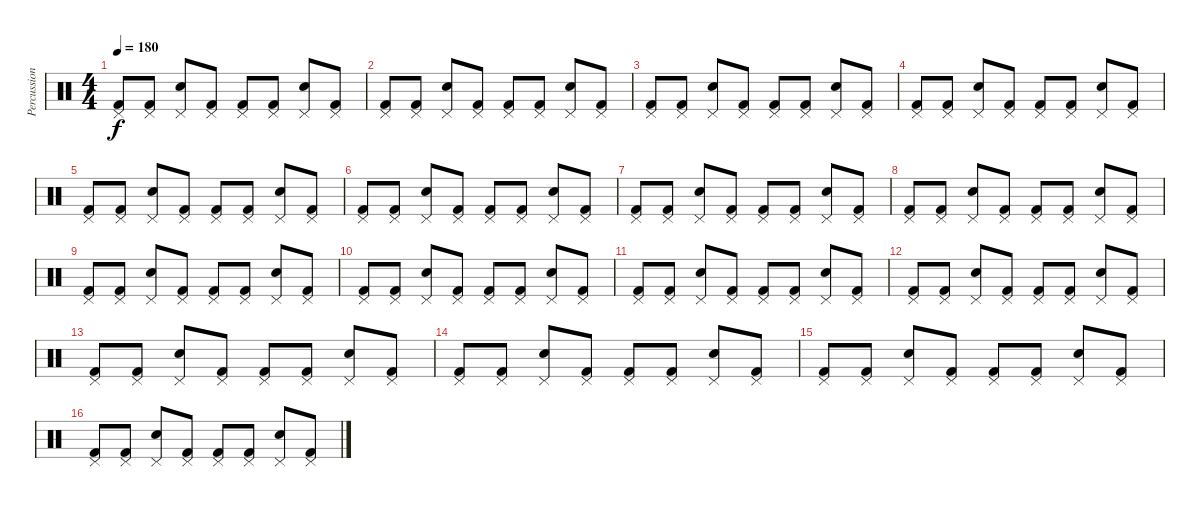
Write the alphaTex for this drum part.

\track ("Percussion" "Percussion") {instrument percussion}
\staff {score}
\articulation defaults
\ts (4 4)
\tempo 180
\clef neutral
\ks c
("Pedal Hi-Hat (hit)" "Kick (hit) 2").8{dy f} ("Pedal Hi-Hat (hit)" "Kick (hit) 2").8 ("Pedal Hi-Hat (hit)" "Snare (hit) 2").8 ("Pedal Hi-Hat (hit)" "Kick (hit) 2").8 ("Pedal Hi-Hat (hit)" "Kick (hit) 2").8 ("Pedal Hi-Hat (hit)" "Kick (hit) 2").8 ("Pedal Hi-Hat (hit)" "Snare (hit) 2").8 ("Pedal Hi-Hat (hit)" "Kick (hit) 2").8 |
("Pedal Hi-Hat (hit)" "Kick (hit) 2").8 ("Pedal Hi-Hat (hit)" "Kick (hit) 2").8 ("Pedal Hi-Hat (hit)" "Snare (hit) 2").8 ("Pedal Hi-Hat (hit)" "Kick (hit) 2").8 ("Pedal Hi-Hat (hit)" "Kick (hit) 2").8 ("Pedal Hi-Hat (hit)" "Kick (hit) 2").8 ("Pedal Hi-Hat (hit)" "Snare (hit) 2").8 ("Pedal Hi-Hat (hit)" "Kick (hit) 2").8 |
("Pedal Hi-Hat (hit)" "Kick (hit) 2").8 ("Pedal Hi-Hat (hit)" "Kick (hit) 2").8 ("Pedal Hi-Hat (hit)" "Snare (hit) 2").8 ("Pedal Hi-Hat (hit)" "Kick (hit) 2").8 ("Pedal Hi-Hat (hit)" "Kick (hit) 2").8 ("Pedal Hi-Hat (hit)" "Kick (hit) 2").8 ("Pedal Hi-Hat (hit)" "Snare (hit) 2").8 ("Pedal Hi-Hat (hit)" "Kick (hit) 2").8 |
("Pedal Hi-Hat (hit)" "Kick (hit) 2").8 ("Pedal Hi-Hat (hit)" "Kick (hit) 2").8 ("Pedal Hi-Hat (hit)" "Snare (hit) 2").8 ("Pedal Hi-Hat (hit)" "Kick (hit) 2").8 ("Pedal Hi-Hat (hit)" "Kick (hit) 2").8 ("Pedal Hi-Hat (hit)" "Kick (hit) 2").8 ("Pedal Hi-Hat (hit)" "Snare (hit) 2").8 ("Pedal Hi-Hat (hit)" "Kick (hit) 2").8 |
("Pedal Hi-Hat (hit)" "Kick (hit) 2").8 ("Pedal Hi-Hat (hit)" "Kick (hit) 2").8 ("Pedal Hi-Hat (hit)" "Snare (hit) 2").8 ("Pedal Hi-Hat (hit)" "Kick (hit) 2").8 ("Pedal Hi-Hat (hit)" "Kick (hit) 2").8 ("Pedal Hi-Hat (hit)" "Kick (hit) 2").8 ("Pedal Hi-Hat (hit)" "Snare (hit) 2").8 ("Pedal Hi-Hat (hit)" "Kick (hit) 2").8 |
("Pedal Hi-Hat (hit)" "Kick (hit) 2").8 ("Pedal Hi-Hat (hit)" "Kick (hit) 2").8 ("Pedal Hi-Hat (hit)" "Snare (hit) 2").8 ("Pedal Hi-Hat (hit)" "Kick (hit) 2").8 ("Pedal Hi-Hat (hit)" "Kick (hit) 2").8 ("Pedal Hi-Hat (hit)" "Kick (hit) 2").8 ("Pedal Hi-Hat (hit)" "Snare (hit) 2").8 ("Pedal Hi-Hat (hit)" "Kick (hit) 2").8 |
("Pedal Hi-Hat (hit)" "Kick (hit) 2").8 ("Pedal Hi-Hat (hit)" "Kick (hit) 2").8 ("Pedal Hi-Hat (hit)" "Snare (hit) 2").8 ("Pedal Hi-Hat (hit)" "Kick (hit) 2").8 ("Pedal Hi-Hat (hit)" "Kick (hit) 2").8 ("Pedal Hi-Hat (hit)" "Kick (hit) 2").8 ("Pedal Hi-Hat (hit)" "Snare (hit) 2").8 ("Pedal Hi-Hat (hit)" "Kick (hit) 2").8 |
("Pedal Hi-Hat (hit)" "Kick (hit) 2").8 ("Pedal Hi-Hat (hit)" "Kick (hit) 2").8 ("Pedal Hi-Hat (hit)" "Snare (hit) 2").8 ("Pedal Hi-Hat (hit)" "Kick (hit) 2").8 ("Pedal Hi-Hat (hit)" "Kick (hit) 2").8 ("Pedal Hi-Hat (hit)" "Kick (hit) 2").8 ("Pedal Hi-Hat (hit)" "Snare (hit) 2").8 ("Pedal Hi-Hat (hit)" "Kick (hit) 2").8 |
("Pedal Hi-Hat (hit)" "Kick (hit) 2").8 ("Pedal Hi-Hat (hit)" "Kick (hit) 2").8 ("Pedal Hi-Hat (hit)" "Snare (hit) 2").8 ("Pedal Hi-Hat (hit)" "Kick (hit) 2").8 ("Pedal Hi-Hat (hit)" "Kick (hit) 2").8 ("Pedal Hi-Hat (hit)" "Kick (hit) 2").8 ("Pedal Hi-Hat (hit)" "Snare (hit) 2").8 ("Pedal Hi-Hat (hit)" "Kick (hit) 2").8 |
("Pedal Hi-Hat (hit)" "Kick (hit) 2").8 ("Pedal Hi-Hat (hit)" "Kick (hit) 2").8 ("Pedal Hi-Hat (hit)" "Snare (hit) 2").8 ("Pedal Hi-Hat (hit)" "Kick (hit) 2").8 ("Pedal Hi-Hat (hit)" "Kick (hit) 2").8 ("Pedal Hi-Hat (hit)" "Kick (hit) 2").8 ("Pedal Hi-Hat (hit)" "Snare (hit) 2").8 ("Pedal Hi-Hat (hit)" "Kick (hit) 2").8 |
("Pedal Hi-Hat (hit)" "Kick (hit) 2").8 ("Pedal Hi-Hat (hit)" "Kick (hit) 2").8 ("Pedal Hi-Hat (hit)" "Snare (hit) 2").8 ("Pedal Hi-Hat (hit)" "Kick (hit) 2").8 ("Pedal Hi-Hat (hit)" "Kick (hit) 2").8 ("Pedal Hi-Hat (hit)" "Kick (hit) 2").8 ("Pedal Hi-Hat (hit)" "Snare (hit) 2").8 ("Pedal Hi-Hat (hit)" "Kick (hit) 2").8 |
("Pedal Hi-Hat (hit)" "Kick (hit) 2").8 ("Pedal Hi-Hat (hit)" "Kick (hit) 2").8 ("Pedal Hi-Hat (hit)" "Snare (hit) 2").8 ("Pedal Hi-Hat (hit)" "Kick (hit) 2").8 ("Pedal Hi-Hat (hit)" "Kick (hit) 2").8 ("Pedal Hi-Hat (hit)" "Kick (hit) 2").8 ("Pedal Hi-Hat (hit)" "Snare (hit) 2").8 ("Pedal Hi-Hat (hit)" "Kick (hit) 2").8 |
("Pedal Hi-Hat (hit)" "Kick (hit) 2").8 ("Pedal Hi-Hat (hit)" "Kick (hit) 2").8 ("Pedal Hi-Hat (hit)" "Snare (hit) 2").8 ("Pedal Hi-Hat (hit)" "Kick (hit) 2").8 ("Pedal Hi-Hat (hit)" "Kick (hit) 2").8 ("Pedal Hi-Hat (hit)" "Kick (hit) 2").8 ("Pedal Hi-Hat (hit)" "Snare (hit) 2").8 ("Pedal Hi-Hat (hit)" "Kick (hit) 2").8 |
("Pedal Hi-Hat (hit)" "Kick (hit) 2").8 ("Pedal Hi-Hat (hit)" "Kick (hit) 2").8 ("Pedal Hi-Hat (hit)" "Snare (hit) 2").8 ("Pedal Hi-Hat (hit)" "Kick (hit) 2").8 ("Pedal Hi-Hat (hit)" "Kick (hit) 2").8 ("Pedal Hi-Hat (hit)" "Kick (hit) 2").8 ("Pedal Hi-Hat (hit)" "Snare (hit) 2").8 ("Pedal Hi-Hat (hit)" "Kick (hit) 2").8 |
("Pedal Hi-Hat (hit)" "Kick (hit) 2").8 ("Pedal Hi-Hat (hit)" "Kick (hit) 2").8 ("Pedal Hi-Hat (hit)" "Snare (hit) 2").8 ("Pedal Hi-Hat (hit)" "Kick (hit) 2").8 ("Pedal Hi-Hat (hit)" "Kick (hit) 2").8 ("Pedal Hi-Hat (hit)" "Kick (hit) 2").8 ("Pedal Hi-Hat (hit)" "Snare (hit) 2").8 ("Pedal Hi-Hat (hit)" "Kick (hit) 2").8 |
("Pedal Hi-Hat (hit)" "Kick (hit) 2").8 ("Pedal Hi-Hat (hit)" "Kick (hit) 2").8 ("Pedal Hi-Hat (hit)" "Snare (hit) 2").8 ("Pedal Hi-Hat (hit)" "Kick (hit) 2").8 ("Pedal Hi-Hat (hit)" "Kick (hit) 2").8 ("Pedal Hi-Hat (hit)" "Kick (hit) 2").8 ("Pedal Hi-Hat (hit)" "Snare (hit) 2").8 ("Pedal Hi-Hat (hit)" "Kick (hit) 2").8
